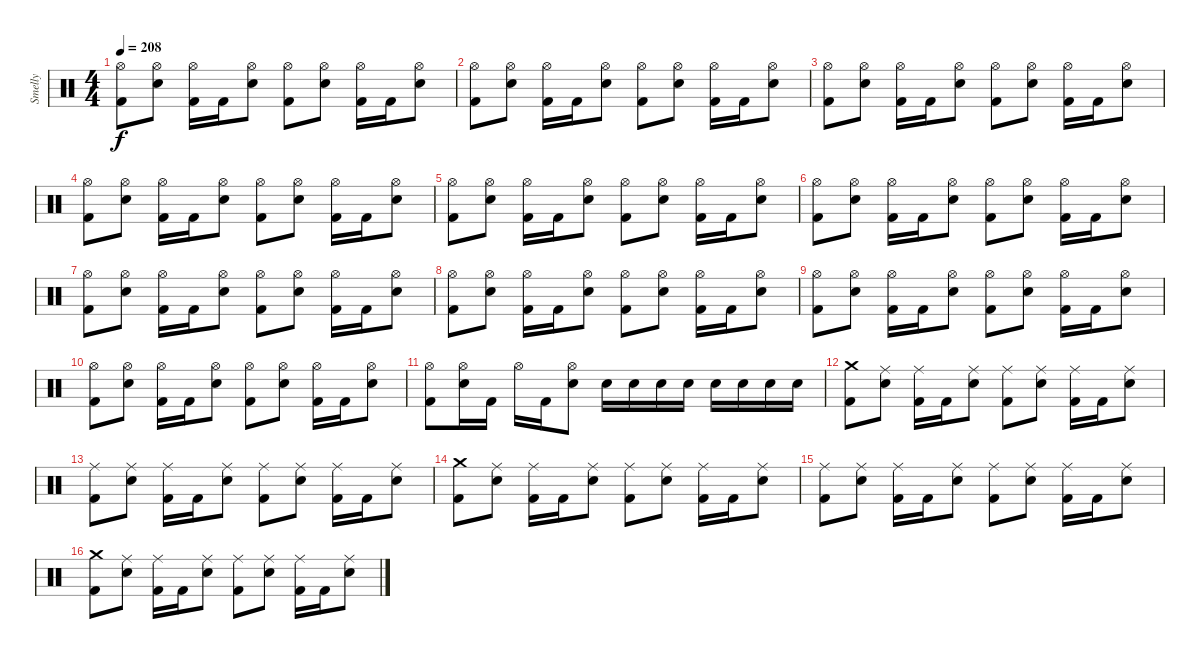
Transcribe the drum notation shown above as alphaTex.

\track ("Smelly" "Smelly") {instrument percussion}
\staff {score}
\articulation defaults
\ts (4 4)
\tempo 208
\clef neutral
\ks c
("Kick (hit) 2" "Hi-Hat (open)").8{dy f} ("Hi-Hat (open)" "Electric Snare (hit)").8 ("Kick (hit) 2" "Hi-Hat (open)").16 "Kick (hit) 2".16 ("Hi-Hat (open)" "Electric Snare (hit)").8 ("Kick (hit) 2" "Hi-Hat (open)").8 ("Hi-Hat (open)" "Electric Snare (hit)").8 ("Kick (hit) 2" "Hi-Hat (open)").16 "Kick (hit) 2".16 ("Hi-Hat (open)" "Electric Snare (hit)").8 |
("Kick (hit) 2" "Hi-Hat (open)").8 ("Hi-Hat (open)" "Electric Snare (hit)").8 ("Kick (hit) 2" "Hi-Hat (open)").16 "Kick (hit) 2".16 ("Hi-Hat (open)" "Electric Snare (hit)").8 ("Kick (hit) 2" "Hi-Hat (open)").8 ("Hi-Hat (open)" "Electric Snare (hit)").8 ("Kick (hit) 2" "Hi-Hat (open)").16 "Kick (hit) 2".16 ("Hi-Hat (open)" "Electric Snare (hit)").8 |
("Kick (hit) 2" "Hi-Hat (open)").8 ("Hi-Hat (open)" "Electric Snare (hit)").8 ("Kick (hit) 2" "Hi-Hat (open)").16 "Kick (hit) 2".16 ("Hi-Hat (open)" "Electric Snare (hit)").8 ("Kick (hit) 2" "Hi-Hat (open)").8 ("Hi-Hat (open)" "Electric Snare (hit)").8 ("Kick (hit) 2" "Hi-Hat (open)").16 "Kick (hit) 2".16 ("Hi-Hat (open)" "Electric Snare (hit)").8 |
("Kick (hit) 2" "Hi-Hat (open)").8 ("Hi-Hat (open)" "Electric Snare (hit)").8 ("Kick (hit) 2" "Hi-Hat (open)").16 "Kick (hit) 2".16 ("Hi-Hat (open)" "Electric Snare (hit)").8 ("Kick (hit) 2" "Hi-Hat (open)").8 ("Hi-Hat (open)" "Electric Snare (hit)").8 ("Kick (hit) 2" "Hi-Hat (open)").16 "Kick (hit) 2".16 ("Hi-Hat (open)" "Electric Snare (hit)").8 |
("Kick (hit) 2" "Hi-Hat (open)").8 ("Hi-Hat (open)" "Electric Snare (hit)").8 ("Kick (hit) 2" "Hi-Hat (open)").16 "Kick (hit) 2".16 ("Hi-Hat (open)" "Electric Snare (hit)").8 ("Kick (hit) 2" "Hi-Hat (open)").8 ("Hi-Hat (open)" "Electric Snare (hit)").8 ("Kick (hit) 2" "Hi-Hat (open)").16 "Kick (hit) 2".16 ("Hi-Hat (open)" "Electric Snare (hit)").8 |
("Kick (hit) 2" "Hi-Hat (open)").8 ("Hi-Hat (open)" "Electric Snare (hit)").8 ("Kick (hit) 2" "Hi-Hat (open)").16 "Kick (hit) 2".16 ("Hi-Hat (open)" "Electric Snare (hit)").8 ("Kick (hit) 2" "Hi-Hat (open)").8 ("Hi-Hat (open)" "Electric Snare (hit)").8 ("Kick (hit) 2" "Hi-Hat (open)").16 "Kick (hit) 2".16 ("Hi-Hat (open)" "Electric Snare (hit)").8 |
("Kick (hit) 2" "Hi-Hat (open)").8 ("Hi-Hat (open)" "Electric Snare (hit)").8 ("Kick (hit) 2" "Hi-Hat (open)").16 "Kick (hit) 2".16 ("Hi-Hat (open)" "Electric Snare (hit)").8 ("Kick (hit) 2" "Hi-Hat (open)").8 ("Hi-Hat (open)" "Electric Snare (hit)").8 ("Kick (hit) 2" "Hi-Hat (open)").16 "Kick (hit) 2".16 ("Hi-Hat (open)" "Electric Snare (hit)").8 |
("Kick (hit) 2" "Hi-Hat (open)").8 ("Hi-Hat (open)" "Electric Snare (hit)").8 ("Kick (hit) 2" "Hi-Hat (open)").16 "Kick (hit) 2".16 ("Hi-Hat (open)" "Electric Snare (hit)").8 ("Kick (hit) 2" "Hi-Hat (open)").8 ("Hi-Hat (open)" "Electric Snare (hit)").8 ("Kick (hit) 2" "Hi-Hat (open)").16 "Kick (hit) 2".16 ("Hi-Hat (open)" "Electric Snare (hit)").8 |
("Kick (hit) 2" "Hi-Hat (open)").8 ("Hi-Hat (open)" "Electric Snare (hit)").8 ("Kick (hit) 2" "Hi-Hat (open)").16 "Kick (hit) 2".16 ("Hi-Hat (open)" "Electric Snare (hit)").8 ("Kick (hit) 2" "Hi-Hat (open)").8 ("Hi-Hat (open)" "Electric Snare (hit)").8 ("Kick (hit) 2" "Hi-Hat (open)").16 "Kick (hit) 2".16 ("Hi-Hat (open)" "Electric Snare (hit)").8 |
("Kick (hit) 2" "Hi-Hat (open)").8 ("Hi-Hat (open)" "Electric Snare (hit)").8 ("Kick (hit) 2" "Hi-Hat (open)").16 "Kick (hit) 2".16 ("Hi-Hat (open)" "Electric Snare (hit)").8 ("Kick (hit) 2" "Hi-Hat (open)").8 ("Hi-Hat (open)" "Electric Snare (hit)").8 ("Kick (hit) 2" "Hi-Hat (open)").16 "Kick (hit) 2".16 ("Hi-Hat (open)" "Electric Snare (hit)").8 |
("Hi-Hat (open)" "Kick (hit) 2").8 ("Hi-Hat (open)" "Electric Snare (hit)").16 "Kick (hit) 2".16 "Hi-Hat (open)".16 "Kick (hit) 2".16 ("Hi-Hat (open)" "Electric Snare (hit)").8 "Electric Snare (hit)".16 "Electric Snare (hit)".16 "Electric Snare (hit)".16 "Electric Snare (hit)".16 "Electric Snare (hit)".16 "Electric Snare (hit)".16 "Electric Snare (hit)".16 "Electric Snare (hit)".16 |
("Crash medium (hit)" "Kick (hit) 2").8 ("Ride (middle)" "Electric Snare (hit)").8 ("Kick (hit) 2" "Ride (middle)").16 "Kick (hit) 2".16 ("Ride (middle)" "Electric Snare (hit)").8 ("Kick (hit) 2" "Ride (middle)").8 ("Ride (middle)" "Electric Snare (hit)").8 ("Kick (hit) 2" "Ride (middle)").16 "Kick (hit) 2".16 ("Ride (middle)" "Electric Snare (hit)").8 |
("Kick (hit) 2" "Ride (middle)").8 ("Ride (middle)" "Electric Snare (hit)").8 ("Kick (hit) 2" "Ride (middle)").16 "Kick (hit) 2".16 ("Ride (middle)" "Electric Snare (hit)").8 ("Kick (hit) 2" "Ride (middle)").8 ("Ride (middle)" "Electric Snare (hit)").8 ("Kick (hit) 2" "Ride (middle)").16 "Kick (hit) 2".16 ("Ride (middle)" "Electric Snare (hit)").8 |
("Crash medium (hit)" "Kick (hit) 2").8 ("Ride (middle)" "Electric Snare (hit)").8 ("Kick (hit) 2" "Ride (middle)").16 "Kick (hit) 2".16 ("Ride (middle)" "Electric Snare (hit)").8 ("Kick (hit) 2" "Ride (middle)").8 ("Ride (middle)" "Electric Snare (hit)").8 ("Kick (hit) 2" "Ride (middle)").16 "Kick (hit) 2".16 ("Ride (middle)" "Electric Snare (hit)").8 |
("Kick (hit) 2" "Ride (middle)").8 ("Ride (middle)" "Electric Snare (hit)").8 ("Kick (hit) 2" "Ride (middle)").16 "Kick (hit) 2".16 ("Ride (middle)" "Electric Snare (hit)").8 ("Kick (hit) 2" "Ride (middle)").8 ("Ride (middle)" "Electric Snare (hit)").8 ("Kick (hit) 2" "Ride (middle)").16 "Kick (hit) 2".16 ("Ride (middle)" "Electric Snare (hit)").8 |
("Crash medium (hit)" "Kick (hit) 2").8 ("Ride (middle)" "Electric Snare (hit)").8 ("Kick (hit) 2" "Ride (middle)").16 "Kick (hit) 2".16 ("Ride (middle)" "Electric Snare (hit)").8 ("Kick (hit) 2" "Ride (middle)").8 ("Ride (middle)" "Electric Snare (hit)").8 ("Kick (hit) 2" "Ride (middle)").16 "Kick (hit) 2".16 ("Ride (middle)" "Electric Snare (hit)").8
